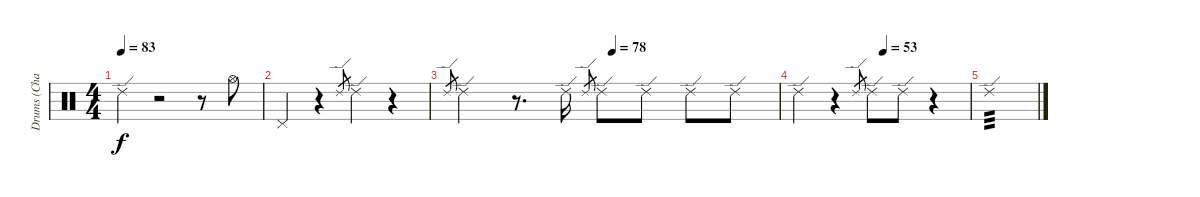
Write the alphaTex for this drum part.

\track ("Drums (Charlie)" "Drums (Cha") {instrument percussion}
\staff {score}
\articulation defaults
\ts (4 4)
\tempo 83
\clef neutral
\ks c "Ride (edge) 2".4{dy f}
r.2 r.8 "Hi-Hat (open)".8 |
"Pedal Hi-Hat (hit)".4 r.4 "Ride (edge) 2".8{gr} "Ride (edge) 2".4 r.4 |
\tempo (78 0.5)
"Ride (edge) 2".8{gr} "Ride (edge) 2".4 r.8{d} "Ride (edge) 2".16 "Ride (edge) 2".8{gr} "Ride (edge) 2".8 "Ride (edge) 2".8 "Ride (edge) 2".8 "Ride (edge) 2".8 |
\tempo (53 0.5)
"Ride (edge) 2".4 r.4 "Ride (edge) 2".8{gr} "Ride (edge) 2".8 "Ride (edge) 2".8 r.4 |
"Ride (edge) 2".1{tp 3 volume 4}
